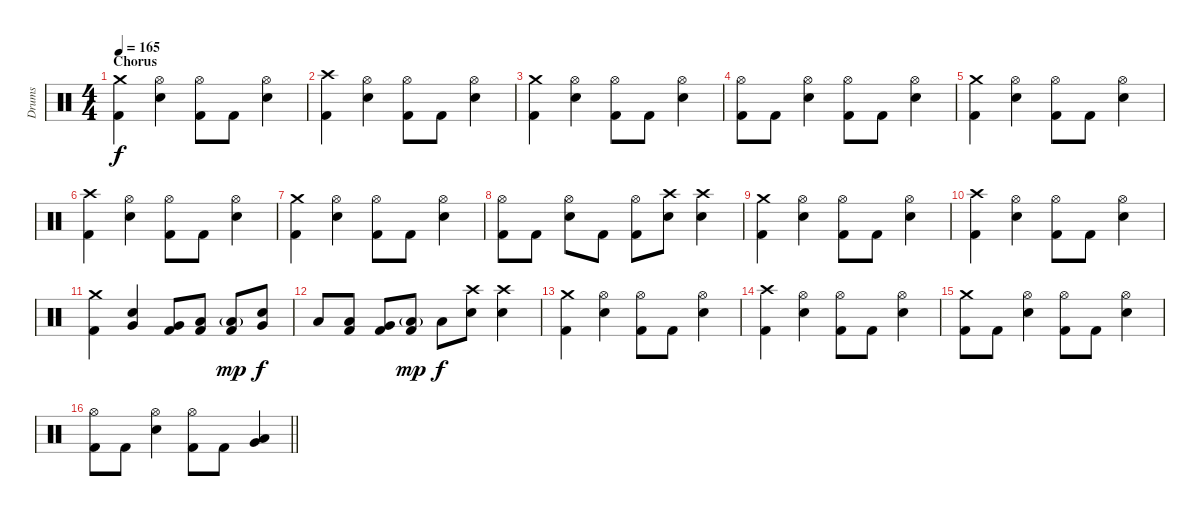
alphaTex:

\track ("Drums" "Drums") {instrument percussion}
\staff {score}
\articulation defaults
\ts (4 4)
\section ("" "Chorus")
\tempo 165
\clef neutral
\ks c
("Crash medium (hit)" "Kick (hit) 2").4{dy f} ("Hi-Hat (open)" "Electric Snare (hit)").4 ("Hi-Hat (open)" "Kick (hit) 2").8 "Kick (hit) 2".8 ("Hi-Hat (open)" "Electric Snare (hit)").4 |
("Crash high (hit)" "Kick (hit) 2").4 ("Hi-Hat (open)" "Electric Snare (hit)").4 ("Hi-Hat (open)" "Kick (hit) 2").8 "Kick (hit) 2".8 ("Hi-Hat (open)" "Electric Snare (hit)").4 |
("Crash medium (hit)" "Kick (hit) 2").4 ("Hi-Hat (open)" "Electric Snare (hit)").4 ("Hi-Hat (open)" "Kick (hit) 2").8 "Kick (hit) 2".8 ("Hi-Hat (open)" "Electric Snare (hit)").4 |
("Hi-Hat (open)" "Kick (hit) 2").8 "Kick (hit) 2".8 ("Hi-Hat (open)" "Electric Snare (hit)").4 ("Hi-Hat (open)" "Kick (hit) 2").8 "Kick (hit) 2".8 ("Hi-Hat (open)" "Electric Snare (hit)").4 |
("Crash medium (hit)" "Kick (hit) 2").4 ("Hi-Hat (open)" "Electric Snare (hit)").4 ("Hi-Hat (open)" "Kick (hit) 2").8 "Kick (hit) 2".8 ("Hi-Hat (open)" "Electric Snare (hit)").4 |
("Crash high (hit)" "Kick (hit) 2").4 ("Hi-Hat (open)" "Electric Snare (hit)").4 ("Hi-Hat (open)" "Kick (hit) 2").8 "Kick (hit) 2".8 ("Hi-Hat (open)" "Electric Snare (hit)").4 |
("Crash medium (hit)" "Kick (hit) 2").4 ("Hi-Hat (open)" "Electric Snare (hit)").4 ("Hi-Hat (open)" "Kick (hit) 2").8 "Kick (hit) 2".8 ("Hi-Hat (open)" "Electric Snare (hit)").4 |
("Hi-Hat (open)" "Kick (hit) 2").8 "Kick (hit) 2".8 ("Hi-Hat (open)" "Electric Snare (hit)").8 "Kick (hit) 2".8 ("Hi-Hat (open)" "Kick (hit) 2").8 ("Crash high (hit)" "Electric Snare (hit)").8 ("Crash high (hit)" "Electric Snare (hit)").4 |
("Crash medium (hit)" "Kick (hit) 2").4 ("Hi-Hat (open)" "Electric Snare (hit)").4 ("Hi-Hat (open)" "Kick (hit) 2").8 "Kick (hit) 2".8 ("Hi-Hat (open)" "Electric Snare (hit)").4 |
("Crash high (hit)" "Kick (hit) 2").4 ("Hi-Hat (open)" "Electric Snare (hit)").4 ("Hi-Hat (open)" "Kick (hit) 2").8 "Kick (hit) 2".8 ("Hi-Hat (open)" "Electric Snare (hit)").4 |
("Crash medium (hit)" "Kick (hit) 2").4 ("Very Low Tom (hit)" "Electric Snare (hit)").4 ("Very Low Tom (hit)" "Kick (hit) 2").8 ("Low Floor Tom (hit)" "Kick (hit) 2").8 ("Low Floor Tom (hit)"{g} "Kick (hit) 2").8{dy mp} ("Very Low Tom (hit)" "Electric Snare (hit)").8{dy f} |
"Low Floor Tom (hit)".8 ("Low Floor Tom (hit)" "Kick (hit) 2").8 ("Very Low Tom (hit)" "Kick (hit) 2").8 ("Low Floor Tom (hit)"{g} "Kick (hit) 2").8{dy mp} "Low Floor Tom (hit)".8{dy f} ("Crash high (hit)" "Electric Snare (hit)").8 ("Crash high (hit)" "Electric Snare (hit)").4 |
("Crash medium (hit)" "Kick (hit) 2").4 ("Hi-Hat (open)" "Electric Snare (hit)").4 ("Hi-Hat (open)" "Kick (hit) 2").8 "Kick (hit) 2".8 ("Hi-Hat (open)" "Electric Snare (hit)").4 |
("Crash high (hit)" "Kick (hit) 2").4 ("Hi-Hat (open)" "Electric Snare (hit)").4 ("Hi-Hat (open)" "Kick (hit) 2").8 "Kick (hit) 2".8 ("Hi-Hat (open)" "Electric Snare (hit)").4 |
("Crash medium (hit)" "Kick (hit) 2").8 "Kick (hit) 2".8 ("Hi-Hat (open)" "Electric Snare (hit)").4 ("Hi-Hat (open)" "Kick (hit) 2").8 "Kick (hit) 2".8 ("Hi-Hat (open)" "Electric Snare (hit)").4 |
\barLineRight lightlight
("Hi-Hat (open)" "Kick (hit) 2").8 "Kick (hit) 2".8 ("Hi-Hat (open)" "Electric Snare (hit)").4 ("Hi-Hat (open)" "Kick (hit) 2").8 "Kick (hit) 2".8 ("Very Low Tom (hit)" "Low Tom (hit)").4
